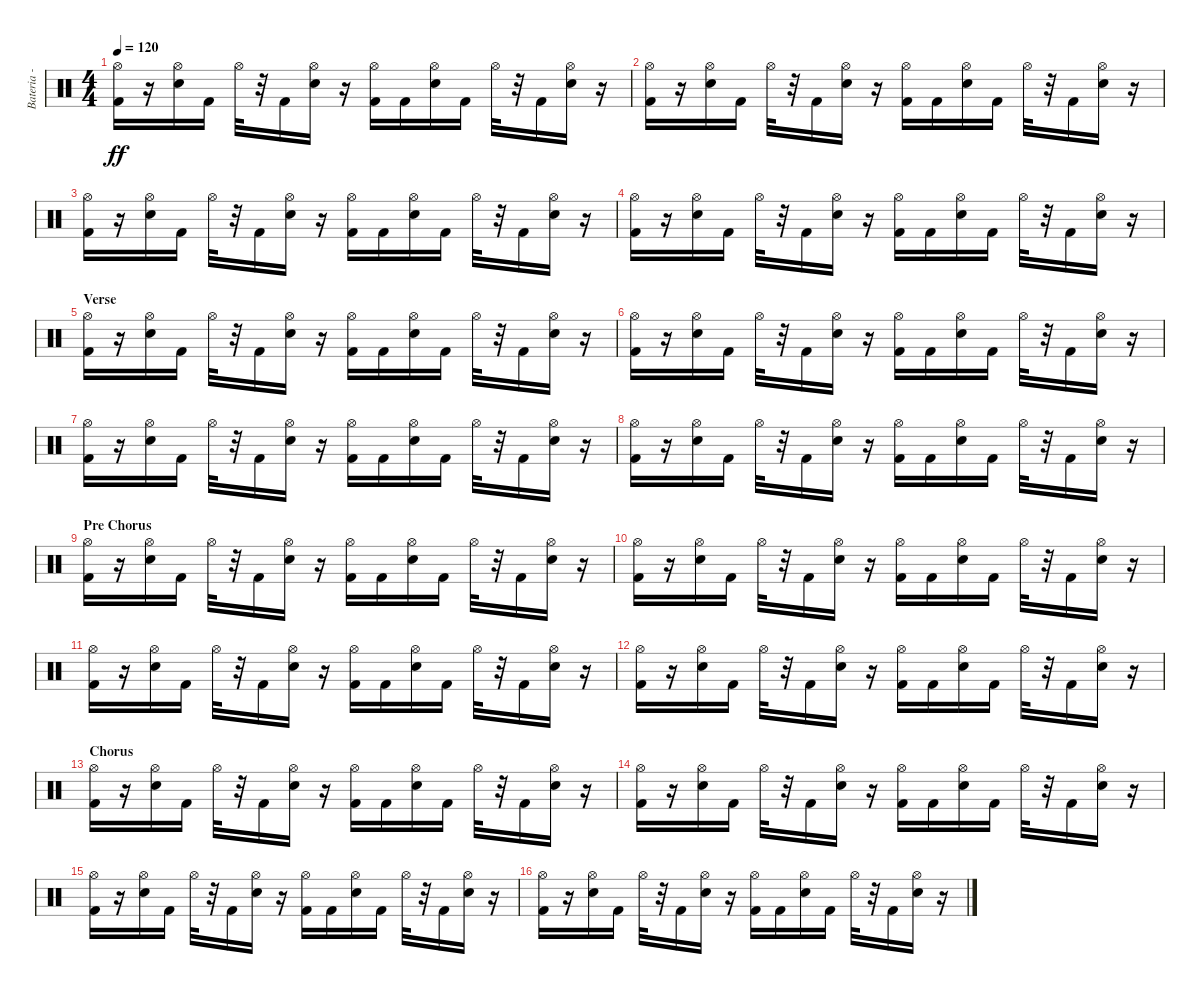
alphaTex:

\track ("Bateria - Marky" "Bateria - ") {instrument percussion}
\staff {score}
\articulation defaults
\ts (4 4)
\tempo 120
\clef neutral
\ks c
("Kick (hit) 2" "Hi-Hat (open)").16{dy ff} r.16 ("Electric Snare (hit)" "Hi-Hat (open)").16 "Kick (hit) 2".16 "Hi-Hat (open)".32 r.32 "Kick (hit) 2".16 ("Electric Snare (hit)" "Hi-Hat (open)").16 r.16 ("Kick (hit) 2" "Hi-Hat (open)").16 "Kick (hit) 2".16 ("Electric Snare (hit)" "Hi-Hat (open)").16 "Kick (hit) 2".16 "Hi-Hat (open)".32 r.32 "Kick (hit) 2".16 ("Electric Snare (hit)" "Hi-Hat (open)").16 r.16 |
("Kick (hit) 2" "Hi-Hat (open)").16 r.16 ("Electric Snare (hit)" "Hi-Hat (open)").16 "Kick (hit) 2".16 "Hi-Hat (open)".32 r.32 "Kick (hit) 2".16 ("Electric Snare (hit)" "Hi-Hat (open)").16 r.16 ("Kick (hit) 2" "Hi-Hat (open)").16 "Kick (hit) 2".16 ("Electric Snare (hit)" "Hi-Hat (open)").16 "Kick (hit) 2".16 "Hi-Hat (open)".32 r.32 "Kick (hit) 2".16 ("Electric Snare (hit)" "Hi-Hat (open)").16 r.16 |
("Kick (hit) 2" "Hi-Hat (open)").16 r.16 ("Electric Snare (hit)" "Hi-Hat (open)").16 "Kick (hit) 2".16 "Hi-Hat (open)".32 r.32 "Kick (hit) 2".16 ("Electric Snare (hit)" "Hi-Hat (open)").16 r.16 ("Kick (hit) 2" "Hi-Hat (open)").16 "Kick (hit) 2".16 ("Electric Snare (hit)" "Hi-Hat (open)").16 "Kick (hit) 2".16 "Hi-Hat (open)".32 r.32 "Kick (hit) 2".16 ("Electric Snare (hit)" "Hi-Hat (open)").16 r.16 |
("Kick (hit) 2" "Hi-Hat (open)").16 r.16 ("Electric Snare (hit)" "Hi-Hat (open)").16 "Kick (hit) 2".16 "Hi-Hat (open)".32 r.32 "Kick (hit) 2".16 ("Electric Snare (hit)" "Hi-Hat (open)").16 r.16 ("Kick (hit) 2" "Hi-Hat (open)").16 "Kick (hit) 2".16 ("Electric Snare (hit)" "Hi-Hat (open)").16 "Kick (hit) 2".16 "Hi-Hat (open)".32 r.32 "Kick (hit) 2".16 ("Electric Snare (hit)" "Hi-Hat (open)").16 r.16 |
\section ("" "Verse")
("Kick (hit) 2" "Hi-Hat (open)").16 r.16 ("Electric Snare (hit)" "Hi-Hat (open)").16 "Kick (hit) 2".16 "Hi-Hat (open)".32 r.32 "Kick (hit) 2".16 ("Electric Snare (hit)" "Hi-Hat (open)").16 r.16 ("Kick (hit) 2" "Hi-Hat (open)").16 "Kick (hit) 2".16 ("Electric Snare (hit)" "Hi-Hat (open)").16 "Kick (hit) 2".16 "Hi-Hat (open)".32 r.32 "Kick (hit) 2".16 ("Electric Snare (hit)" "Hi-Hat (open)").16 r.16 |
("Kick (hit) 2" "Hi-Hat (open)").16 r.16 ("Electric Snare (hit)" "Hi-Hat (open)").16 "Kick (hit) 2".16 "Hi-Hat (open)".32 r.32 "Kick (hit) 2".16 ("Electric Snare (hit)" "Hi-Hat (open)").16 r.16 ("Kick (hit) 2" "Hi-Hat (open)").16 "Kick (hit) 2".16 ("Electric Snare (hit)" "Hi-Hat (open)").16 "Kick (hit) 2".16 "Hi-Hat (open)".32 r.32 "Kick (hit) 2".16 ("Electric Snare (hit)" "Hi-Hat (open)").16 r.16 |
("Kick (hit) 2" "Hi-Hat (open)").16 r.16 ("Electric Snare (hit)" "Hi-Hat (open)").16 "Kick (hit) 2".16 "Hi-Hat (open)".32 r.32 "Kick (hit) 2".16 ("Electric Snare (hit)" "Hi-Hat (open)").16 r.16 ("Kick (hit) 2" "Hi-Hat (open)").16 "Kick (hit) 2".16 ("Electric Snare (hit)" "Hi-Hat (open)").16 "Kick (hit) 2".16 "Hi-Hat (open)".32 r.32 "Kick (hit) 2".16 ("Electric Snare (hit)" "Hi-Hat (open)").16 r.16 |
("Kick (hit) 2" "Hi-Hat (open)").16 r.16 ("Electric Snare (hit)" "Hi-Hat (open)").16 "Kick (hit) 2".16 "Hi-Hat (open)".32 r.32 "Kick (hit) 2".16 ("Electric Snare (hit)" "Hi-Hat (open)").16 r.16 ("Kick (hit) 2" "Hi-Hat (open)").16 "Kick (hit) 2".16 ("Electric Snare (hit)" "Hi-Hat (open)").16 "Kick (hit) 2".16 "Hi-Hat (open)".32 r.32 "Kick (hit) 2".16 ("Electric Snare (hit)" "Hi-Hat (open)").16 r.16 |
\section ("" "Pre Chorus")
("Kick (hit) 2" "Hi-Hat (open)").16 r.16 ("Electric Snare (hit)" "Hi-Hat (open)").16 "Kick (hit) 2".16 "Hi-Hat (open)".32 r.32 "Kick (hit) 2".16 ("Electric Snare (hit)" "Hi-Hat (open)").16 r.16 ("Kick (hit) 2" "Hi-Hat (open)").16 "Kick (hit) 2".16 ("Electric Snare (hit)" "Hi-Hat (open)").16 "Kick (hit) 2".16 "Hi-Hat (open)".32 r.32 "Kick (hit) 2".16 ("Electric Snare (hit)" "Hi-Hat (open)").16 r.16 |
("Kick (hit) 2" "Hi-Hat (open)").16 r.16 ("Electric Snare (hit)" "Hi-Hat (open)").16 "Kick (hit) 2".16 "Hi-Hat (open)".32 r.32 "Kick (hit) 2".16 ("Electric Snare (hit)" "Hi-Hat (open)").16 r.16 ("Kick (hit) 2" "Hi-Hat (open)").16 "Kick (hit) 2".16 ("Electric Snare (hit)" "Hi-Hat (open)").16 "Kick (hit) 2".16 "Hi-Hat (open)".32 r.32 "Kick (hit) 2".16 ("Electric Snare (hit)" "Hi-Hat (open)").16 r.16 |
("Kick (hit) 2" "Hi-Hat (open)").16 r.16 ("Electric Snare (hit)" "Hi-Hat (open)").16 "Kick (hit) 2".16 "Hi-Hat (open)".32 r.32 "Kick (hit) 2".16 ("Electric Snare (hit)" "Hi-Hat (open)").16 r.16 ("Kick (hit) 2" "Hi-Hat (open)").16 "Kick (hit) 2".16 ("Electric Snare (hit)" "Hi-Hat (open)").16 "Kick (hit) 2".16 "Hi-Hat (open)".32 r.32 "Kick (hit) 2".16 ("Electric Snare (hit)" "Hi-Hat (open)").16 r.16 |
("Kick (hit) 2" "Hi-Hat (open)").16 r.16 ("Electric Snare (hit)" "Hi-Hat (open)").16 "Kick (hit) 2".16 "Hi-Hat (open)".32 r.32 "Kick (hit) 2".16 ("Electric Snare (hit)" "Hi-Hat (open)").16 r.16 ("Kick (hit) 2" "Hi-Hat (open)").16 "Kick (hit) 2".16 ("Electric Snare (hit)" "Hi-Hat (open)").16 "Kick (hit) 2".16 "Hi-Hat (open)".32 r.32 "Kick (hit) 2".16 ("Electric Snare (hit)" "Hi-Hat (open)").16 r.16 |
\section ("" "Chorus")
("Kick (hit) 2" "Hi-Hat (open)").16 r.16 ("Electric Snare (hit)" "Hi-Hat (open)").16 "Kick (hit) 2".16 "Hi-Hat (open)".32 r.32 "Kick (hit) 2".16 ("Electric Snare (hit)" "Hi-Hat (open)").16 r.16 ("Kick (hit) 2" "Hi-Hat (open)").16 "Kick (hit) 2".16 ("Electric Snare (hit)" "Hi-Hat (open)").16 "Kick (hit) 2".16 "Hi-Hat (open)".32 r.32 "Kick (hit) 2".16 ("Electric Snare (hit)" "Hi-Hat (open)").16 r.16 |
("Kick (hit) 2" "Hi-Hat (open)").16 r.16 ("Electric Snare (hit)" "Hi-Hat (open)").16 "Kick (hit) 2".16 "Hi-Hat (open)".32 r.32 "Kick (hit) 2".16 ("Electric Snare (hit)" "Hi-Hat (open)").16 r.16 ("Kick (hit) 2" "Hi-Hat (open)").16 "Kick (hit) 2".16 ("Electric Snare (hit)" "Hi-Hat (open)").16 "Kick (hit) 2".16 "Hi-Hat (open)".32 r.32 "Kick (hit) 2".16 ("Electric Snare (hit)" "Hi-Hat (open)").16 r.16 |
("Kick (hit) 2" "Hi-Hat (open)").16 r.16 ("Electric Snare (hit)" "Hi-Hat (open)").16 "Kick (hit) 2".16 "Hi-Hat (open)".32 r.32 "Kick (hit) 2".16 ("Electric Snare (hit)" "Hi-Hat (open)").16 r.16 ("Kick (hit) 2" "Hi-Hat (open)").16 "Kick (hit) 2".16 ("Electric Snare (hit)" "Hi-Hat (open)").16 "Kick (hit) 2".16 "Hi-Hat (open)".32 r.32 "Kick (hit) 2".16 ("Electric Snare (hit)" "Hi-Hat (open)").16 r.16 |
("Kick (hit) 2" "Hi-Hat (open)").16 r.16 ("Electric Snare (hit)" "Hi-Hat (open)").16 "Kick (hit) 2".16 "Hi-Hat (open)".32 r.32 "Kick (hit) 2".16 ("Electric Snare (hit)" "Hi-Hat (open)").16 r.16 ("Kick (hit) 2" "Hi-Hat (open)").16 "Kick (hit) 2".16 ("Electric Snare (hit)" "Hi-Hat (open)").16 "Kick (hit) 2".16 "Hi-Hat (open)".32 r.32 "Kick (hit) 2".16 ("Electric Snare (hit)" "Hi-Hat (open)").16 r.16
